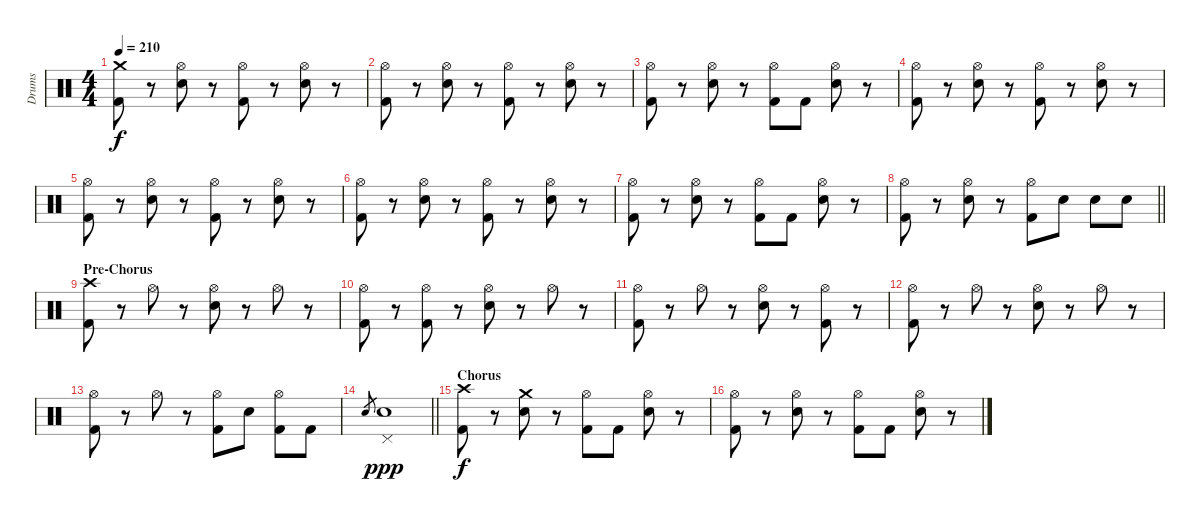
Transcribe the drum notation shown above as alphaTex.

\track ("Drums" "Drums") {instrument percussion}
\staff {score}
\articulation defaults
\ts (4 4)
\tempo 210
\clef neutral
\ks c
("Crash medium (hit)" "Kick (hit) 2").8{dy f} r.8 ("Hi-Hat (open)" "Electric Snare (hit)").8 r.8 ("Hi-Hat (open)" "Kick (hit) 2").8 r.8 ("Hi-Hat (open)" "Electric Snare (hit)").8 r.8 |
("Hi-Hat (open)" "Kick (hit) 2").8 r.8 ("Hi-Hat (open)" "Electric Snare (hit)").8 r.8 ("Hi-Hat (open)" "Kick (hit) 2").8 r.8 ("Hi-Hat (open)" "Electric Snare (hit)").8 r.8 |
("Hi-Hat (open)" "Kick (hit) 2").8 r.8 ("Hi-Hat (open)" "Electric Snare (hit)").8 r.8 ("Hi-Hat (open)" "Kick (hit) 2").8 "Kick (hit) 2".8 ("Hi-Hat (open)" "Electric Snare (hit)").8 r.8 |
("Hi-Hat (open)" "Kick (hit) 2").8 r.8 ("Hi-Hat (open)" "Electric Snare (hit)").8 r.8 ("Hi-Hat (open)" "Kick (hit) 2").8 r.8 ("Hi-Hat (open)" "Electric Snare (hit)").8 r.8 |
("Hi-Hat (open)" "Kick (hit) 2").8 r.8 ("Hi-Hat (open)" "Electric Snare (hit)").8 r.8 ("Hi-Hat (open)" "Kick (hit) 2").8 r.8 ("Hi-Hat (open)" "Electric Snare (hit)").8 r.8 |
("Hi-Hat (open)" "Kick (hit) 2").8 r.8 ("Hi-Hat (open)" "Electric Snare (hit)").8 r.8 ("Hi-Hat (open)" "Kick (hit) 2").8 r.8 ("Hi-Hat (open)" "Electric Snare (hit)").8 r.8 |
("Hi-Hat (open)" "Kick (hit) 2").8 r.8 ("Hi-Hat (open)" "Electric Snare (hit)").8 r.8 ("Hi-Hat (open)" "Kick (hit) 2").8 "Kick (hit) 2".8 ("Hi-Hat (open)" "Electric Snare (hit)").8 r.8 |
\barLineRight lightlight
("Hi-Hat (open)" "Kick (hit) 2").8 r.8 ("Hi-Hat (open)" "Electric Snare (hit)").8 r.8 ("Hi-Hat (open)" "Kick (hit) 2").8 "Electric Snare (hit)".8 "Electric Snare (hit)".8 "Electric Snare (hit)".8 |
\section ("" "Pre-Chorus")
("Crash high (hit)" "Kick (hit) 2").8 r.8 "Hi-Hat (open)".8 r.8 ("Hi-Hat (open)" "Electric Snare (hit)").8 r.8 "Hi-Hat (open)".8 r.8 |
("Hi-Hat (open)" "Kick (hit) 2").8 r.8 ("Hi-Hat (open)" "Kick (hit) 2").8 r.8 ("Hi-Hat (open)" "Electric Snare (hit)").8 r.8 "Hi-Hat (open)".8 r.8 |
("Hi-Hat (open)" "Kick (hit) 2").8 r.8 "Hi-Hat (open)".8 r.8 ("Hi-Hat (open)" "Electric Snare (hit)").8 r.8 ("Hi-Hat (open)" "Kick (hit) 2").8 r.8 |
("Hi-Hat (open)" "Kick (hit) 2").8 r.8 "Hi-Hat (open)".8 r.8 ("Hi-Hat (open)" "Electric Snare (hit)").8 r.8 "Hi-Hat (open)".8 r.8 |
("Hi-Hat (open)" "Kick (hit) 2").8 r.8 "Hi-Hat (open)".8 r.8 ("Hi-Hat (open)" "Kick (hit) 2").8 "Electric Snare (hit)".8 ("Hi-Hat (open)" "Kick (hit) 2").8 "Kick (hit) 2".8 |
\barLineRight lightlight "Electric Snare (hit)".8{gr}
("Pedal Hi-Hat (hit)" "Electric Snare (hit)").1{dy ppp} |
\section ("" "Chorus")
("Crash high (hit)" "Kick (hit) 2").8{dy f} r.8 ("Crash medium (hit)" "Electric Snare (hit)").8 r.8 ("Hi-Hat (open)" "Kick (hit) 2").8 "Kick (hit) 2".8 ("Hi-Hat (open)" "Electric Snare (hit)").8 r.8 |
("Hi-Hat (open)" "Kick (hit) 2").8 r.8 ("Hi-Hat (open)" "Electric Snare (hit)").8 r.8 ("Hi-Hat (open)" "Kick (hit) 2").8 "Kick (hit) 2".8 ("Hi-Hat (open)" "Electric Snare (hit)").8 r.8
